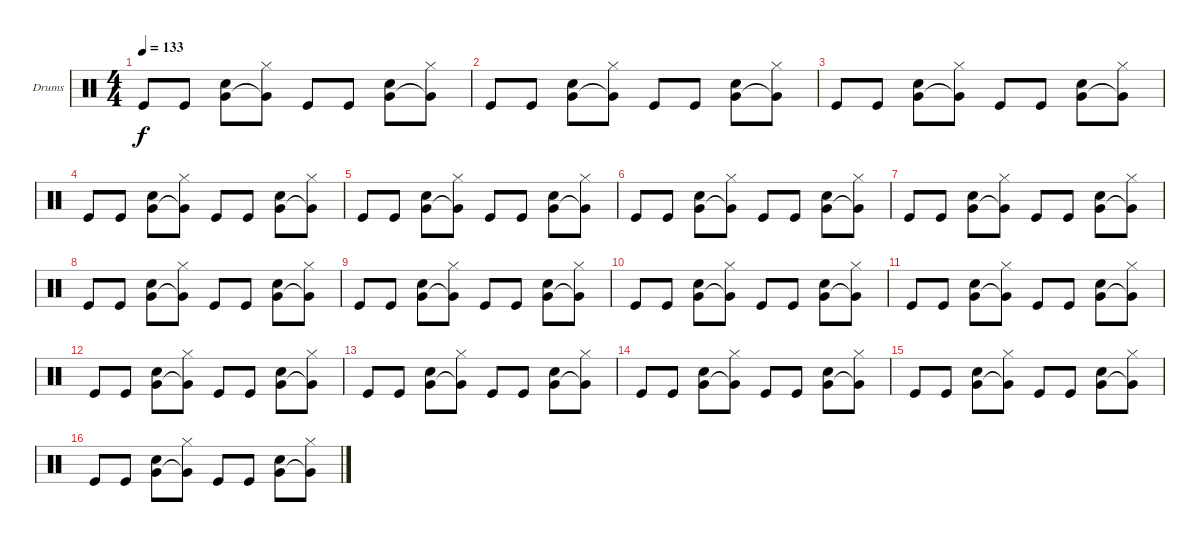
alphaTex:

\bracketExtendMode groupsimilarinstruments
\firstSystemTrackNameOrientation horizontal
\otherSystemsTrackNameOrientation horizontal
\track ("Drumkit" "Drums") {instrument percussion}
\staff {score}
\articulation defaults
\ts (4 4)
\tempo 133
\clef neutral
\ks c "Kick (hit)".8{dy f} "Kick (hit)".8
("Snare (hit) 2" "Very Low Tom (hit)").8 ("Hi-Hat (closed)" "Very Low Tom (hit)"{t}).8 "Kick (hit)".8 "Kick (hit)".8 ("Snare (hit) 2" "Very Low Tom (hit)").8 ("Hi-Hat (closed)" "Very Low Tom (hit)"{t}).8 |
"Kick (hit)".8 "Kick (hit)".8 ("Snare (hit) 2" "Very Low Tom (hit)").8 ("Hi-Hat (closed)" "Very Low Tom (hit)"{t}).8 "Kick (hit)".8 "Kick (hit)".8 ("Snare (hit) 2" "Very Low Tom (hit)").8 ("Hi-Hat (closed)" "Very Low Tom (hit)"{t}).8 |
"Kick (hit)".8 "Kick (hit)".8 ("Snare (hit) 2" "Very Low Tom (hit)").8 ("Hi-Hat (closed)" "Very Low Tom (hit)"{t}).8 "Kick (hit)".8 "Kick (hit)".8 ("Snare (hit) 2" "Very Low Tom (hit)").8 ("Hi-Hat (closed)" "Very Low Tom (hit)"{t}).8 |
"Kick (hit)".8 "Kick (hit)".8 ("Snare (hit) 2" "Very Low Tom (hit)").8 ("Hi-Hat (closed)" "Very Low Tom (hit)"{t}).8 "Kick (hit)".8 "Kick (hit)".8 ("Snare (hit) 2" "Very Low Tom (hit)").8 ("Hi-Hat (closed)" "Very Low Tom (hit)"{t}).8 |
"Kick (hit)".8 "Kick (hit)".8 ("Snare (hit) 2" "Very Low Tom (hit)").8 ("Hi-Hat (closed)" "Very Low Tom (hit)"{t}).8 "Kick (hit)".8 "Kick (hit)".8 ("Snare (hit) 2" "Very Low Tom (hit)").8 ("Hi-Hat (closed)" "Very Low Tom (hit)"{t}).8 |
"Kick (hit)".8 "Kick (hit)".8 ("Snare (hit) 2" "Very Low Tom (hit)").8 ("Hi-Hat (closed)" "Very Low Tom (hit)"{t}).8 "Kick (hit)".8 "Kick (hit)".8 ("Snare (hit) 2" "Very Low Tom (hit)").8 ("Hi-Hat (closed)" "Very Low Tom (hit)"{t}).8 |
"Kick (hit)".8 "Kick (hit)".8 ("Snare (hit) 2" "Very Low Tom (hit)").8 ("Hi-Hat (closed)" "Very Low Tom (hit)"{t}).8 "Kick (hit)".8 "Kick (hit)".8 ("Snare (hit) 2" "Very Low Tom (hit)").8 ("Hi-Hat (closed)" "Very Low Tom (hit)"{t}).8 |
"Kick (hit)".8 "Kick (hit)".8 ("Snare (hit) 2" "Very Low Tom (hit)").8 ("Hi-Hat (closed)" "Very Low Tom (hit)"{t}).8 "Kick (hit)".8 "Kick (hit)".8 ("Snare (hit) 2" "Very Low Tom (hit)").8 ("Hi-Hat (closed)" "Very Low Tom (hit)"{t}).8 |
"Kick (hit)".8 "Kick (hit)".8 ("Snare (hit) 2" "Very Low Tom (hit)").8 ("Hi-Hat (closed)" "Very Low Tom (hit)"{t}).8 "Kick (hit)".8 "Kick (hit)".8 ("Snare (hit) 2" "Very Low Tom (hit)").8 ("Hi-Hat (closed)" "Very Low Tom (hit)"{t}).8 |
"Kick (hit)".8 "Kick (hit)".8 ("Snare (hit) 2" "Very Low Tom (hit)").8 ("Hi-Hat (closed)" "Very Low Tom (hit)"{t}).8 "Kick (hit)".8 "Kick (hit)".8 ("Snare (hit) 2" "Very Low Tom (hit)").8 ("Hi-Hat (closed)" "Very Low Tom (hit)"{t}).8 |
"Kick (hit)".8 "Kick (hit)".8 ("Snare (hit) 2" "Very Low Tom (hit)").8 ("Hi-Hat (closed)" "Very Low Tom (hit)"{t}).8 "Kick (hit)".8 "Kick (hit)".8 ("Snare (hit) 2" "Very Low Tom (hit)").8 ("Hi-Hat (closed)" "Very Low Tom (hit)"{t}).8 |
"Kick (hit)".8 "Kick (hit)".8 ("Snare (hit) 2" "Very Low Tom (hit)").8 ("Hi-Hat (closed)" "Very Low Tom (hit)"{t}).8 "Kick (hit)".8 "Kick (hit)".8 ("Snare (hit) 2" "Very Low Tom (hit)").8 ("Hi-Hat (closed)" "Very Low Tom (hit)"{t}).8 |
"Kick (hit)".8 "Kick (hit)".8 ("Snare (hit) 2" "Very Low Tom (hit)").8 ("Hi-Hat (closed)" "Very Low Tom (hit)"{t}).8 "Kick (hit)".8 "Kick (hit)".8 ("Snare (hit) 2" "Very Low Tom (hit)").8 ("Hi-Hat (closed)" "Very Low Tom (hit)"{t}).8 |
"Kick (hit)".8 "Kick (hit)".8 ("Snare (hit) 2" "Very Low Tom (hit)").8 ("Hi-Hat (closed)" "Very Low Tom (hit)"{t}).8 "Kick (hit)".8 "Kick (hit)".8 ("Snare (hit) 2" "Very Low Tom (hit)").8 ("Hi-Hat (closed)" "Very Low Tom (hit)"{t}).8 |
"Kick (hit)".8 "Kick (hit)".8 ("Snare (hit) 2" "Very Low Tom (hit)").8 ("Hi-Hat (closed)" "Very Low Tom (hit)"{t}).8 "Kick (hit)".8 "Kick (hit)".8 ("Snare (hit) 2" "Very Low Tom (hit)").8 ("Hi-Hat (closed)" "Very Low Tom (hit)"{t}).8 |
"Kick (hit)".8 "Kick (hit)".8 ("Snare (hit) 2" "Very Low Tom (hit)").8 ("Hi-Hat (closed)" "Very Low Tom (hit)"{t}).8 "Kick (hit)".8 "Kick (hit)".8 ("Snare (hit) 2" "Very Low Tom (hit)").8 ("Hi-Hat (closed)" "Very Low Tom (hit)"{t}).8
